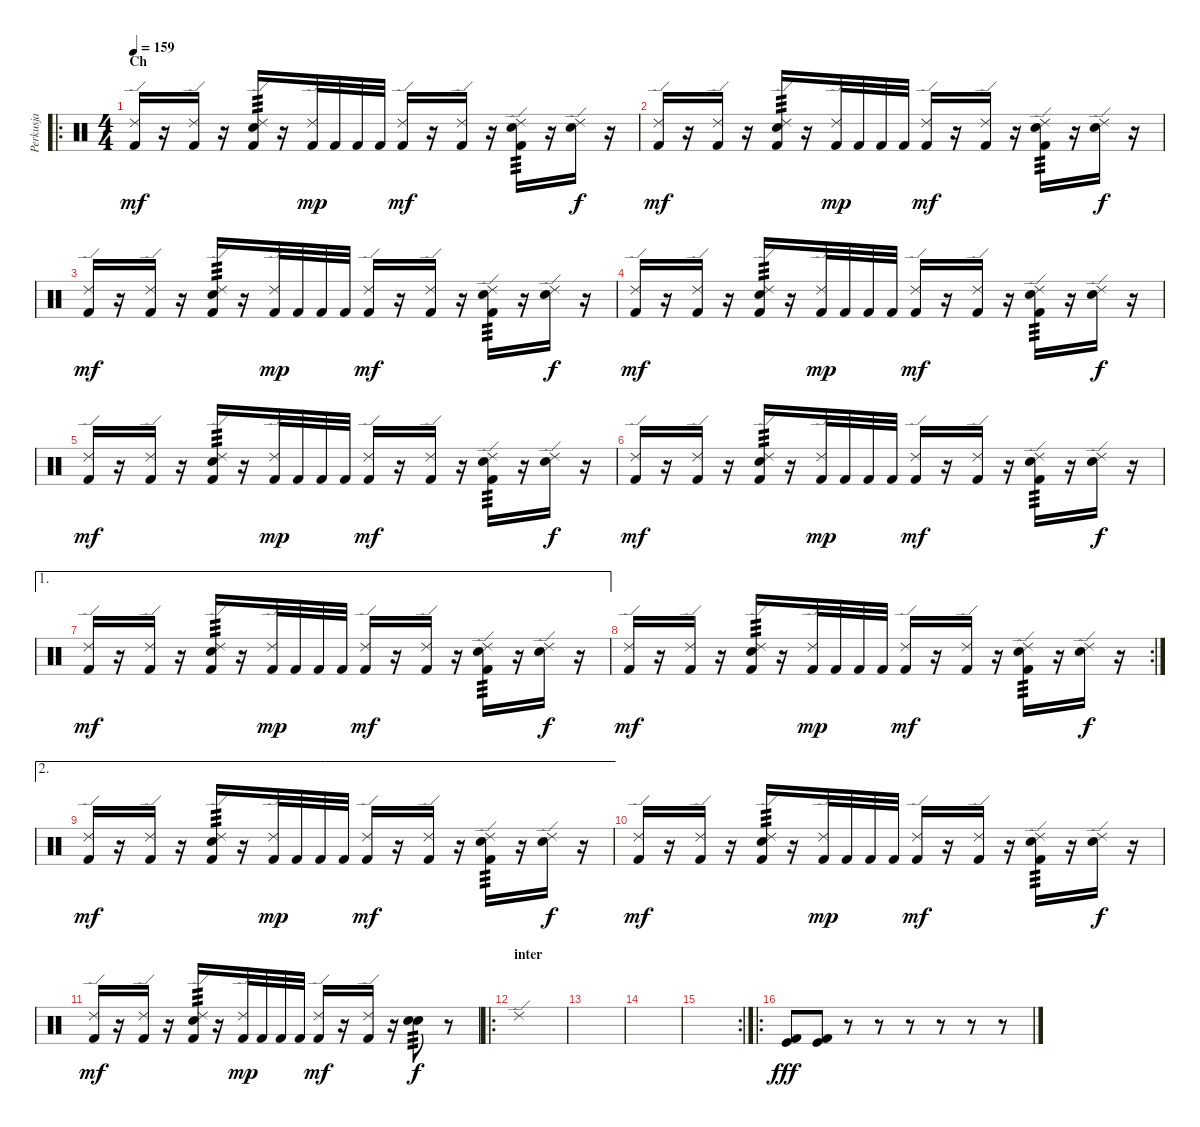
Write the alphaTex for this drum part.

\track ("Perkusja" "Perkusja") {instrument percussion}
\staff {score}
\articulation defaults
\ro
\ts (4 4)
\section ("" "Ch")
\tempo 159
\clef neutral
\ks c
("Ride (edge) 2" "Kick (hit) 2").16{dy mf} r.16 ("Ride (edge) 2" "Kick (hit) 2").16 r.16 ("Ride (edge) 2" "Electric Snare (hit)" "Kick (hit) 2").16{tp 3} r.16 ("Ride (edge) 2" "Kick (hit) 2").32{dy mp} "Kick (hit) 2".32 "Kick (hit) 2".32 "Kick (hit) 2".32 ("Ride (edge) 2" "Kick (hit) 2").16{dy mf} r.16 ("Ride (edge) 2" "Kick (hit) 2").16 r.16 ("Ride (edge) 2" "Electric Snare (hit)" "Kick (hit) 2").16{tp 3} r.16 ("Ride (edge) 2" "Electric Snare (hit)").16{dy f} r.16 |
("Ride (edge) 2" "Kick (hit) 2").16{dy mf} r.16 ("Ride (edge) 2" "Kick (hit) 2").16 r.16 ("Ride (edge) 2" "Electric Snare (hit)" "Kick (hit) 2").16{tp 3} r.16 ("Ride (edge) 2" "Kick (hit) 2").32{dy mp} "Kick (hit) 2".32 "Kick (hit) 2".32 "Kick (hit) 2".32 ("Ride (edge) 2" "Kick (hit) 2").16{dy mf} r.16 ("Ride (edge) 2" "Kick (hit) 2").16 r.16 ("Ride (edge) 2" "Electric Snare (hit)" "Kick (hit) 2").16{tp 3} r.16 ("Ride (edge) 2" "Electric Snare (hit)").16{dy f} r.16 |
("Ride (edge) 2" "Kick (hit) 2").16{dy mf} r.16 ("Ride (edge) 2" "Kick (hit) 2").16 r.16 ("Ride (edge) 2" "Electric Snare (hit)" "Kick (hit) 2").16{tp 3} r.16 ("Ride (edge) 2" "Kick (hit) 2").32{dy mp} "Kick (hit) 2".32 "Kick (hit) 2".32 "Kick (hit) 2".32 ("Ride (edge) 2" "Kick (hit) 2").16{dy mf} r.16 ("Ride (edge) 2" "Kick (hit) 2").16 r.16 ("Ride (edge) 2" "Electric Snare (hit)" "Kick (hit) 2").16{tp 3} r.16 ("Ride (edge) 2" "Electric Snare (hit)").16{dy f} r.16 |
("Ride (edge) 2" "Kick (hit) 2").16{dy mf} r.16 ("Ride (edge) 2" "Kick (hit) 2").16 r.16 ("Ride (edge) 2" "Electric Snare (hit)" "Kick (hit) 2").16{tp 3} r.16 ("Ride (edge) 2" "Kick (hit) 2").32{dy mp} "Kick (hit) 2".32 "Kick (hit) 2".32 "Kick (hit) 2".32 ("Ride (edge) 2" "Kick (hit) 2").16{dy mf} r.16 ("Ride (edge) 2" "Kick (hit) 2").16 r.16 ("Ride (edge) 2" "Electric Snare (hit)" "Kick (hit) 2").16{tp 3} r.16 ("Ride (edge) 2" "Electric Snare (hit)").16{dy f} r.16 |
("Ride (edge) 2" "Kick (hit) 2").16{dy mf} r.16 ("Ride (edge) 2" "Kick (hit) 2").16 r.16 ("Ride (edge) 2" "Electric Snare (hit)" "Kick (hit) 2").16{tp 3} r.16 ("Ride (edge) 2" "Kick (hit) 2").32{dy mp} "Kick (hit) 2".32 "Kick (hit) 2".32 "Kick (hit) 2".32 ("Ride (edge) 2" "Kick (hit) 2").16{dy mf} r.16 ("Ride (edge) 2" "Kick (hit) 2").16 r.16 ("Ride (edge) 2" "Electric Snare (hit)" "Kick (hit) 2").16{tp 3} r.16 ("Ride (edge) 2" "Electric Snare (hit)").16{dy f} r.16 |
("Ride (edge) 2" "Kick (hit) 2").16{dy mf} r.16 ("Ride (edge) 2" "Kick (hit) 2").16 r.16 ("Ride (edge) 2" "Electric Snare (hit)" "Kick (hit) 2").16{tp 3} r.16 ("Ride (edge) 2" "Kick (hit) 2").32{dy mp} "Kick (hit) 2".32 "Kick (hit) 2".32 "Kick (hit) 2".32 ("Ride (edge) 2" "Kick (hit) 2").16{dy mf} r.16 ("Ride (edge) 2" "Kick (hit) 2").16 r.16 ("Ride (edge) 2" "Electric Snare (hit)" "Kick (hit) 2").16{tp 3} r.16 ("Ride (edge) 2" "Electric Snare (hit)").16{dy f} r.16 |
\ae 1
("Ride (edge) 2" "Kick (hit) 2").16{dy mf} r.16 ("Ride (edge) 2" "Kick (hit) 2").16 r.16 ("Ride (edge) 2" "Electric Snare (hit)" "Kick (hit) 2").16{tp 3} r.16 ("Ride (edge) 2" "Kick (hit) 2").32{dy mp} "Kick (hit) 2".32 "Kick (hit) 2".32 "Kick (hit) 2".32 ("Ride (edge) 2" "Kick (hit) 2").16{dy mf} r.16 ("Ride (edge) 2" "Kick (hit) 2").16 r.16 ("Ride (edge) 2" "Electric Snare (hit)" "Kick (hit) 2").16{tp 3} r.16 ("Ride (edge) 2" "Electric Snare (hit)").16{dy f} r.16 |
\rc 2
("Ride (edge) 2" "Kick (hit) 2").16{dy mf} r.16 ("Ride (edge) 2" "Kick (hit) 2").16 r.16 ("Ride (edge) 2" "Electric Snare (hit)" "Kick (hit) 2").16{tp 3} r.16 ("Ride (edge) 2" "Kick (hit) 2").32{dy mp} "Kick (hit) 2".32 "Kick (hit) 2".32 "Kick (hit) 2".32 ("Ride (edge) 2" "Kick (hit) 2").16{dy mf} r.16 ("Ride (edge) 2" "Kick (hit) 2").16 r.16 ("Ride (edge) 2" "Electric Snare (hit)" "Kick (hit) 2").16{tp 3} r.16 ("Ride (edge) 2" "Electric Snare (hit)").16{dy f} r.16 |
\ae 2
("Ride (edge) 2" "Kick (hit) 2").16{dy mf} r.16 ("Ride (edge) 2" "Kick (hit) 2").16 r.16 ("Ride (edge) 2" "Electric Snare (hit)" "Kick (hit) 2").16{tp 3} r.16 ("Ride (edge) 2" "Kick (hit) 2").32{dy mp} "Kick (hit) 2".32 "Kick (hit) 2".32 "Kick (hit) 2".32 ("Ride (edge) 2" "Kick (hit) 2").16{dy mf} r.16 ("Ride (edge) 2" "Kick (hit) 2").16 r.16 ("Ride (edge) 2" "Electric Snare (hit)" "Kick (hit) 2").16{tp 3} r.16 ("Ride (edge) 2" "Electric Snare (hit)").16{dy f} r.16 |
("Ride (edge) 2" "Kick (hit) 2").16{dy mf} r.16 ("Ride (edge) 2" "Kick (hit) 2").16 r.16 ("Ride (edge) 2" "Electric Snare (hit)" "Kick (hit) 2").16{tp 3} r.16 ("Ride (edge) 2" "Kick (hit) 2").32{dy mp} "Kick (hit) 2".32 "Kick (hit) 2".32 "Kick (hit) 2".32 ("Ride (edge) 2" "Kick (hit) 2").16{dy mf} r.16 ("Ride (edge) 2" "Kick (hit) 2").16 r.16 ("Ride (edge) 2" "Electric Snare (hit)" "Kick (hit) 2").16{tp 3} r.16 ("Ride (edge) 2" "Electric Snare (hit)").16{dy f} r.16 |
("Ride (edge) 2" "Kick (hit) 2").16{dy mf} r.16 ("Ride (edge) 2" "Kick (hit) 2").16 r.16 ("Ride (edge) 2" "Electric Snare (hit)" "Kick (hit) 2").16{tp 3} r.16 ("Ride (edge) 2" "Kick (hit) 2").32{dy mp} "Kick (hit) 2".32 "Kick (hit) 2".32 "Kick (hit) 2".32 ("Ride (edge) 2" "Kick (hit) 2").16{dy mf} r.16 ("Ride (edge) 2" "Kick (hit) 2").16 r.16 ("Electric Snare (hit)" "Electric Snare (hit)").8{tp 3 dy f} r.8 |
\ro
\section ("" "inter")
"Ride (edge) 2".1 |
|
|
\rc 2
|
\ro
("Kick (hit) 2" "Kick (hit)").8{dy fff} ("Kick (hit) 2" "Kick (hit)").8 r.8 r.8 r.8 r.8 r.8 r.8
